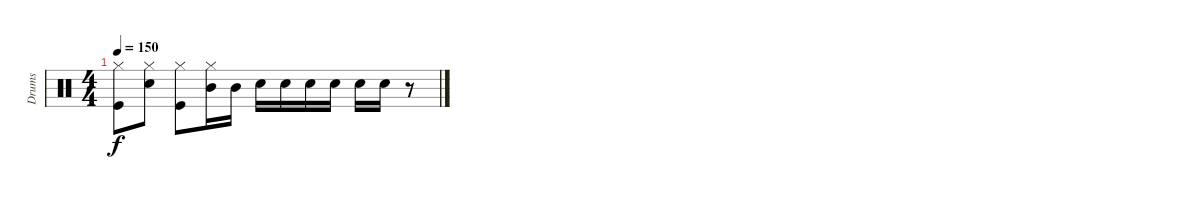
\track ("Drums" "Drums") {instrument percussion}
\staff {score}
\articulation defaults
\ts (4 4)
\tempo 150
\clef neutral
\ks c
("Hi-Hat (closed)" "Kick (hit)").8{dy f} ("Hi-Hat (closed)" "Electric Snare (hit)").8 ("Hi-Hat (closed)" "Kick (hit)").8 ("Hi-Hat (closed)" "Mid Tom (hit)").16 "Mid Tom (hit)".16 "Electric Snare (hit)".16 "Electric Snare (hit)".16 "Electric Snare (hit)".16 "Electric Snare (hit)".16 "Electric Snare (hit)".16 "Electric Snare (hit)".16 r.8
